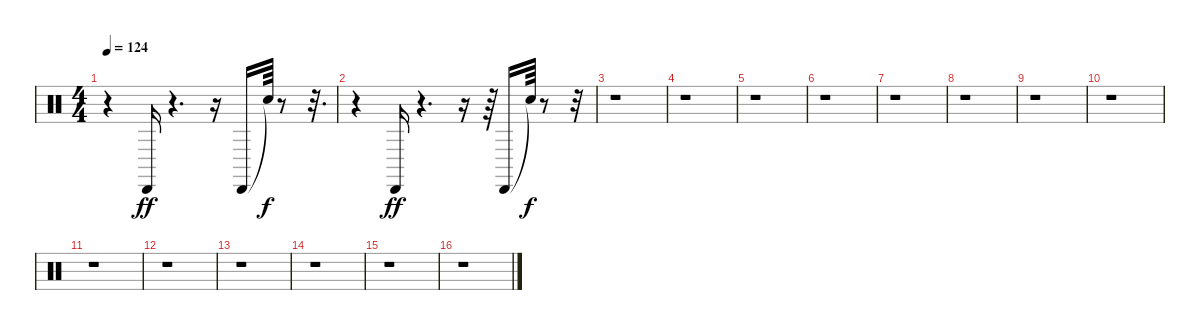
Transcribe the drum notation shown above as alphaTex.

\track "" {instrument percussion}
\staff {score}
\articulation defaults
\ts (4 4)
\tempo 124
\clef neutral
\ks c
r.4{dy ff} "Cabasa (hit)".16 r.4{d} r.16 "Cabasa (hit)".16 "Snare (hit)"{t}.64{dy f} r.8 r.32{d} |
r.4 "Cabasa (hit)".16{dy ff} r.4{d} r.16 r.64 "Cabasa (hit)".16 "Snare (hit)"{t}.64{dy f} r.8 r.32 |
r.1 |
r.1 |
r.1 |
r.1 |
r.1 |
r.1 |
r.1 |
r.1 |
r.1 |
r.1 |
r.1 |
r.1 |
r.1 |
r.1
